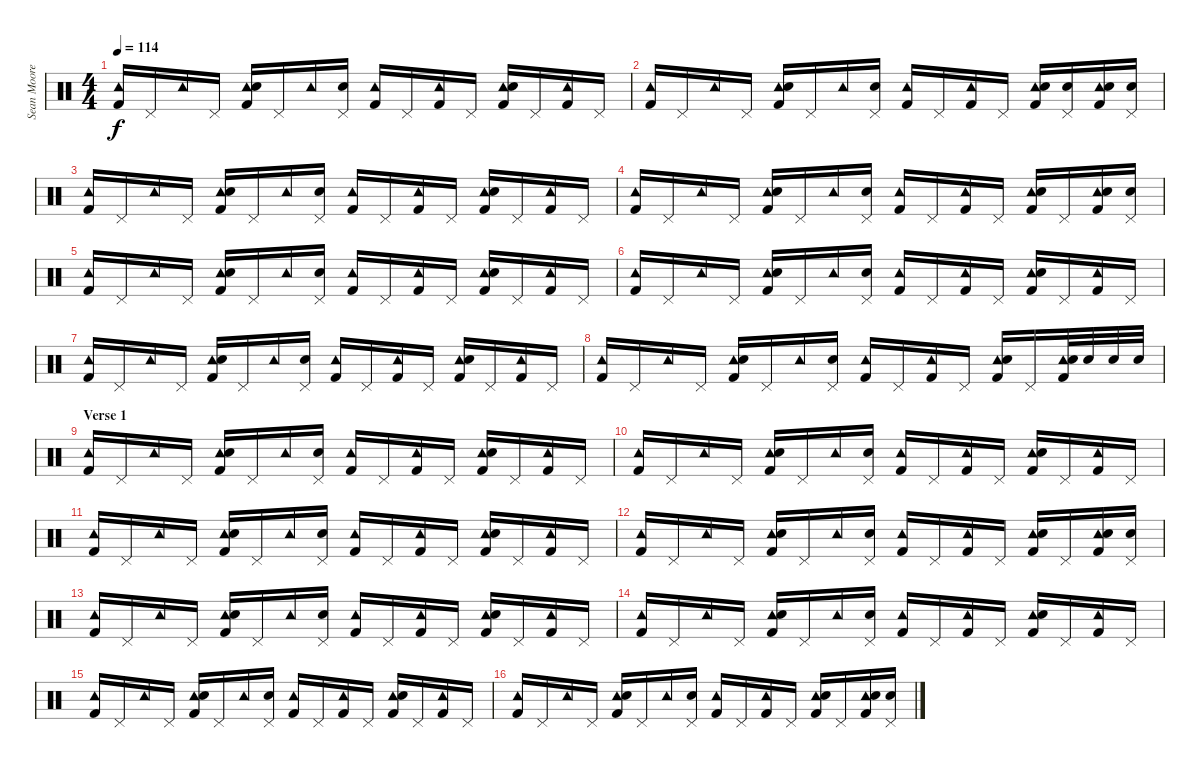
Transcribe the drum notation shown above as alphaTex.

\track ("Sean Moore" "Sean Moore") {instrument percussion}
\staff {score}
\articulation defaults
\ts (4 4)
\tempo 114
\clef neutral
\ks c
("Tambourine (hit)" "Kick (hit) 2").16{dy f} "Pedal Hi-Hat (hit)".16 "Tambourine (hit)".16 "Pedal Hi-Hat (hit)".16 ("Tambourine (hit)" "Snare (hit) 2" "Kick (hit) 2").16 "Pedal Hi-Hat (hit)".16 "Tambourine (hit)".16 ("Snare (hit) 2" "Pedal Hi-Hat (hit)").16 ("Tambourine (hit)" "Kick (hit) 2").16 "Pedal Hi-Hat (hit)".16 ("Tambourine (hit)" "Kick (hit) 2").16 "Pedal Hi-Hat (hit)".16 ("Tambourine (hit)" "Snare (hit) 2" "Kick (hit) 2").16 "Pedal Hi-Hat (hit)".16 ("Tambourine (hit)" "Kick (hit) 2").16 "Pedal Hi-Hat (hit)".16 |
("Tambourine (hit)" "Kick (hit) 2").16 "Pedal Hi-Hat (hit)".16 "Tambourine (hit)".16 "Pedal Hi-Hat (hit)".16 ("Tambourine (hit)" "Snare (hit) 2" "Kick (hit) 2").16 "Pedal Hi-Hat (hit)".16 "Tambourine (hit)".16 ("Snare (hit) 2" "Pedal Hi-Hat (hit)").16 ("Tambourine (hit)" "Kick (hit) 2").16 "Pedal Hi-Hat (hit)".16 ("Tambourine (hit)" "Kick (hit) 2").16 "Pedal Hi-Hat (hit)".16 ("Tambourine (hit)" "Snare (hit) 2" "Kick (hit) 2").16 ("Snare (hit) 2" "Pedal Hi-Hat (hit)").16 ("Tambourine (hit)" "Snare (hit) 2" "Kick (hit) 2").16 ("Snare (hit) 2" "Pedal Hi-Hat (hit)").16 |
("Tambourine (hit)" "Kick (hit) 2").16 "Pedal Hi-Hat (hit)".16 "Tambourine (hit)".16 "Pedal Hi-Hat (hit)".16 ("Tambourine (hit)" "Snare (hit) 2" "Kick (hit) 2").16 "Pedal Hi-Hat (hit)".16 "Tambourine (hit)".16 ("Snare (hit) 2" "Pedal Hi-Hat (hit)").16 ("Tambourine (hit)" "Kick (hit) 2").16 "Pedal Hi-Hat (hit)".16 ("Tambourine (hit)" "Kick (hit) 2").16 "Pedal Hi-Hat (hit)".16 ("Tambourine (hit)" "Snare (hit) 2" "Kick (hit) 2").16 "Pedal Hi-Hat (hit)".16 ("Tambourine (hit)" "Kick (hit) 2").16 "Pedal Hi-Hat (hit)".16 |
("Tambourine (hit)" "Kick (hit) 2").16 "Pedal Hi-Hat (hit)".16 "Tambourine (hit)".16 "Pedal Hi-Hat (hit)".16 ("Tambourine (hit)" "Snare (hit) 2" "Kick (hit) 2").16 "Pedal Hi-Hat (hit)".16 "Tambourine (hit)".16 ("Snare (hit) 2" "Pedal Hi-Hat (hit)").16 ("Tambourine (hit)" "Kick (hit) 2").16 "Pedal Hi-Hat (hit)".16 ("Tambourine (hit)" "Kick (hit) 2").16 "Pedal Hi-Hat (hit)".16 ("Tambourine (hit)" "Snare (hit) 2" "Kick (hit) 2").16 "Pedal Hi-Hat (hit)".16 ("Tambourine (hit)" "Snare (hit) 2" "Kick (hit) 2").16 ("Snare (hit) 2" "Pedal Hi-Hat (hit)").16 |
("Tambourine (hit)" "Kick (hit) 2").16 "Pedal Hi-Hat (hit)".16 "Tambourine (hit)".16 "Pedal Hi-Hat (hit)".16 ("Tambourine (hit)" "Snare (hit) 2" "Kick (hit) 2").16 "Pedal Hi-Hat (hit)".16 "Tambourine (hit)".16 ("Snare (hit) 2" "Pedal Hi-Hat (hit)").16 ("Tambourine (hit)" "Kick (hit) 2").16 "Pedal Hi-Hat (hit)".16 ("Tambourine (hit)" "Kick (hit) 2").16 "Pedal Hi-Hat (hit)".16 ("Tambourine (hit)" "Snare (hit) 2" "Kick (hit) 2").16 "Pedal Hi-Hat (hit)".16 ("Tambourine (hit)" "Kick (hit) 2").16 "Pedal Hi-Hat (hit)".16 |
("Tambourine (hit)" "Kick (hit) 2").16 "Pedal Hi-Hat (hit)".16 "Tambourine (hit)".16 "Pedal Hi-Hat (hit)".16 ("Tambourine (hit)" "Snare (hit) 2" "Kick (hit) 2").16 "Pedal Hi-Hat (hit)".16 "Tambourine (hit)".16 ("Snare (hit) 2" "Pedal Hi-Hat (hit)").16 ("Tambourine (hit)" "Kick (hit) 2").16 "Pedal Hi-Hat (hit)".16 ("Tambourine (hit)" "Kick (hit) 2").16 "Pedal Hi-Hat (hit)".16 ("Tambourine (hit)" "Snare (hit) 2" "Kick (hit) 2").16 "Pedal Hi-Hat (hit)".16 ("Tambourine (hit)" "Kick (hit) 2").16 "Pedal Hi-Hat (hit)".16 |
("Tambourine (hit)" "Kick (hit) 2").16 "Pedal Hi-Hat (hit)".16 "Tambourine (hit)".16 "Pedal Hi-Hat (hit)".16 ("Tambourine (hit)" "Snare (hit) 2" "Kick (hit) 2").16 "Pedal Hi-Hat (hit)".16 "Tambourine (hit)".16 ("Snare (hit) 2" "Pedal Hi-Hat (hit)").16 ("Tambourine (hit)" "Kick (hit) 2").16 "Pedal Hi-Hat (hit)".16 ("Tambourine (hit)" "Kick (hit) 2").16 "Pedal Hi-Hat (hit)".16 ("Tambourine (hit)" "Snare (hit) 2" "Kick (hit) 2").16 "Pedal Hi-Hat (hit)".16 ("Tambourine (hit)" "Kick (hit) 2").16 "Pedal Hi-Hat (hit)".16 |
("Tambourine (hit)" "Kick (hit) 2").16 "Pedal Hi-Hat (hit)".16 "Tambourine (hit)".16 "Pedal Hi-Hat (hit)".16 ("Tambourine (hit)" "Snare (hit) 2" "Kick (hit) 2").16 "Pedal Hi-Hat (hit)".16 "Tambourine (hit)".16 ("Snare (hit) 2" "Pedal Hi-Hat (hit)").16 ("Tambourine (hit)" "Kick (hit) 2").16 "Pedal Hi-Hat (hit)".16 ("Tambourine (hit)" "Kick (hit) 2").16 "Pedal Hi-Hat (hit)".16 ("Tambourine (hit)" "Snare (hit) 2" "Kick (hit) 2").16 "Pedal Hi-Hat (hit)".16 ("Tambourine (hit)" "Snare (hit) 2" "Kick (hit) 2").32 "Snare (hit) 2".32 "Snare (hit) 2".32 "Snare (hit) 2".32 |
\section ("" "Verse 1")
("Tambourine (hit)" "Kick (hit) 2").16 "Pedal Hi-Hat (hit)".16 "Tambourine (hit)".16 "Pedal Hi-Hat (hit)".16 ("Tambourine (hit)" "Snare (hit) 2" "Kick (hit) 2").16 "Pedal Hi-Hat (hit)".16 "Tambourine (hit)".16 ("Snare (hit) 2" "Pedal Hi-Hat (hit)").16 ("Tambourine (hit)" "Kick (hit) 2").16 "Pedal Hi-Hat (hit)".16 ("Tambourine (hit)" "Kick (hit) 2").16 "Pedal Hi-Hat (hit)".16 ("Tambourine (hit)" "Snare (hit) 2" "Kick (hit) 2").16 "Pedal Hi-Hat (hit)".16 ("Tambourine (hit)" "Kick (hit) 2").16 "Pedal Hi-Hat (hit)".16 |
("Tambourine (hit)" "Kick (hit) 2").16 "Pedal Hi-Hat (hit)".16 "Tambourine (hit)".16 "Pedal Hi-Hat (hit)".16 ("Tambourine (hit)" "Snare (hit) 2" "Kick (hit) 2").16 "Pedal Hi-Hat (hit)".16 "Tambourine (hit)".16 ("Snare (hit) 2" "Pedal Hi-Hat (hit)").16 ("Tambourine (hit)" "Kick (hit) 2").16 "Pedal Hi-Hat (hit)".16 ("Tambourine (hit)" "Kick (hit) 2").16 "Pedal Hi-Hat (hit)".16 ("Tambourine (hit)" "Snare (hit) 2" "Kick (hit) 2").16 "Pedal Hi-Hat (hit)".16 ("Tambourine (hit)" "Kick (hit) 2").16 "Pedal Hi-Hat (hit)".16 |
("Tambourine (hit)" "Kick (hit) 2").16 "Pedal Hi-Hat (hit)".16 "Tambourine (hit)".16 "Pedal Hi-Hat (hit)".16 ("Tambourine (hit)" "Snare (hit) 2" "Kick (hit) 2").16 "Pedal Hi-Hat (hit)".16 "Tambourine (hit)".16 ("Snare (hit) 2" "Pedal Hi-Hat (hit)").16 ("Tambourine (hit)" "Kick (hit) 2").16 "Pedal Hi-Hat (hit)".16 ("Tambourine (hit)" "Kick (hit) 2").16 "Pedal Hi-Hat (hit)".16 ("Tambourine (hit)" "Snare (hit) 2" "Kick (hit) 2").16 "Pedal Hi-Hat (hit)".16 ("Tambourine (hit)" "Kick (hit) 2").16 "Pedal Hi-Hat (hit)".16 |
("Tambourine (hit)" "Kick (hit) 2").16 "Pedal Hi-Hat (hit)".16 "Tambourine (hit)".16 "Pedal Hi-Hat (hit)".16 ("Tambourine (hit)" "Snare (hit) 2" "Kick (hit) 2").16 "Pedal Hi-Hat (hit)".16 "Tambourine (hit)".16 ("Snare (hit) 2" "Pedal Hi-Hat (hit)").16 ("Tambourine (hit)" "Kick (hit) 2").16 "Pedal Hi-Hat (hit)".16 ("Tambourine (hit)" "Kick (hit) 2").16 "Pedal Hi-Hat (hit)".16 ("Tambourine (hit)" "Snare (hit) 2" "Kick (hit) 2").16 "Pedal Hi-Hat (hit)".16 ("Tambourine (hit)" "Snare (hit) 2" "Kick (hit) 2").16 ("Snare (hit) 2" "Pedal Hi-Hat (hit)").16 |
("Tambourine (hit)" "Kick (hit) 2").16 "Pedal Hi-Hat (hit)".16 "Tambourine (hit)".16 "Pedal Hi-Hat (hit)".16 ("Tambourine (hit)" "Snare (hit) 2" "Kick (hit) 2").16 "Pedal Hi-Hat (hit)".16 "Tambourine (hit)".16 ("Snare (hit) 2" "Pedal Hi-Hat (hit)").16 ("Tambourine (hit)" "Kick (hit) 2").16 "Pedal Hi-Hat (hit)".16 ("Tambourine (hit)" "Kick (hit) 2").16 "Pedal Hi-Hat (hit)".16 ("Tambourine (hit)" "Snare (hit) 2" "Kick (hit) 2").16 "Pedal Hi-Hat (hit)".16 ("Tambourine (hit)" "Kick (hit) 2").16 "Pedal Hi-Hat (hit)".16 |
("Tambourine (hit)" "Kick (hit) 2").16 "Pedal Hi-Hat (hit)".16 "Tambourine (hit)".16 "Pedal Hi-Hat (hit)".16 ("Tambourine (hit)" "Snare (hit) 2" "Kick (hit) 2").16 "Pedal Hi-Hat (hit)".16 "Tambourine (hit)".16 ("Snare (hit) 2" "Pedal Hi-Hat (hit)").16 ("Tambourine (hit)" "Kick (hit) 2").16 "Pedal Hi-Hat (hit)".16 ("Tambourine (hit)" "Kick (hit) 2").16 "Pedal Hi-Hat (hit)".16 ("Tambourine (hit)" "Snare (hit) 2" "Kick (hit) 2").16 "Pedal Hi-Hat (hit)".16 ("Tambourine (hit)" "Kick (hit) 2").16 "Pedal Hi-Hat (hit)".16 |
("Tambourine (hit)" "Kick (hit) 2").16 "Pedal Hi-Hat (hit)".16 "Tambourine (hit)".16 "Pedal Hi-Hat (hit)".16 ("Tambourine (hit)" "Snare (hit) 2" "Kick (hit) 2").16 "Pedal Hi-Hat (hit)".16 "Tambourine (hit)".16 ("Snare (hit) 2" "Pedal Hi-Hat (hit)").16 ("Tambourine (hit)" "Kick (hit) 2").16 "Pedal Hi-Hat (hit)".16 ("Tambourine (hit)" "Kick (hit) 2").16 "Pedal Hi-Hat (hit)".16 ("Tambourine (hit)" "Snare (hit) 2" "Kick (hit) 2").16 "Pedal Hi-Hat (hit)".16 ("Tambourine (hit)" "Kick (hit) 2").16 "Pedal Hi-Hat (hit)".16 |
("Tambourine (hit)" "Kick (hit) 2").16 "Pedal Hi-Hat (hit)".16 "Tambourine (hit)".16 "Pedal Hi-Hat (hit)".16 ("Tambourine (hit)" "Snare (hit) 2" "Kick (hit) 2").16 "Pedal Hi-Hat (hit)".16 "Tambourine (hit)".16 ("Snare (hit) 2" "Pedal Hi-Hat (hit)").16 ("Tambourine (hit)" "Kick (hit) 2").16 "Pedal Hi-Hat (hit)".16 ("Tambourine (hit)" "Kick (hit) 2").16 "Pedal Hi-Hat (hit)".16 ("Tambourine (hit)" "Snare (hit) 2" "Kick (hit) 2").16 "Pedal Hi-Hat (hit)".16 ("Tambourine (hit)" "Snare (hit) 2" "Kick (hit) 2").16 ("Snare (hit) 2" "Pedal Hi-Hat (hit)").16
